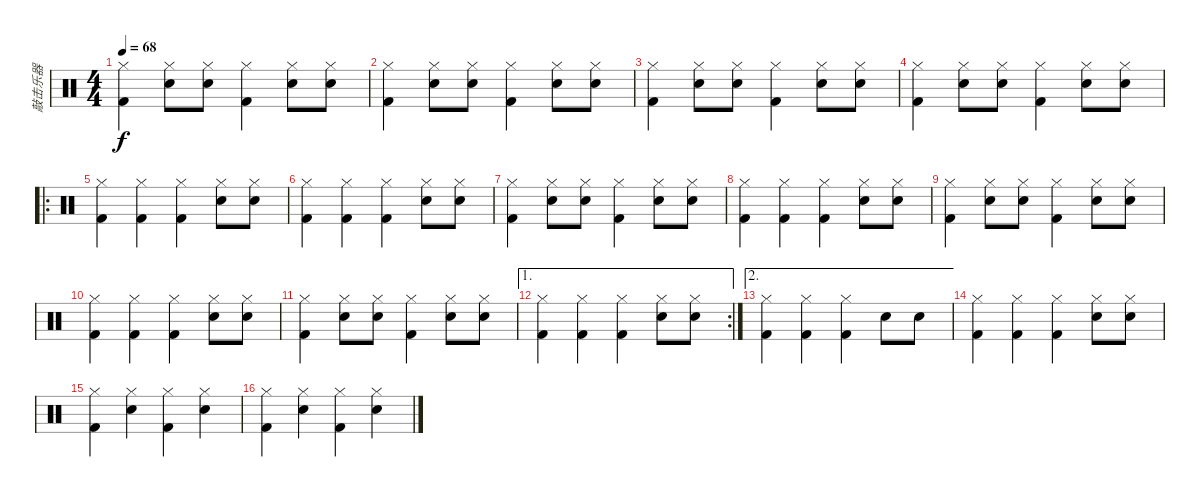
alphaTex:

\track ("敲击乐器" "敲击乐器") {instrument percussion}
\staff {score}
\articulation defaults
\ts (4 4)
\tempo 68
\clef neutral
\ks c
("Kick (hit) 2" "Hi-Hat (closed)").4{dy f} ("Snare (hit) 2" "Hi-Hat (closed)").8 ("Snare (hit) 2" "Hi-Hat (closed)").8 ("Kick (hit) 2" "Hi-Hat (closed)").4 ("Snare (hit) 2" "Hi-Hat (closed)").8 ("Snare (hit) 2" "Hi-Hat (closed)").8 |
("Kick (hit) 2" "Hi-Hat (closed)").4 ("Snare (hit) 2" "Hi-Hat (closed)").8 ("Snare (hit) 2" "Hi-Hat (closed)").8 ("Kick (hit) 2" "Hi-Hat (closed)").4 ("Snare (hit) 2" "Hi-Hat (closed)").8 ("Snare (hit) 2" "Hi-Hat (closed)").8 |
("Kick (hit) 2" "Hi-Hat (closed)").4 ("Snare (hit) 2" "Hi-Hat (closed)").8 ("Snare (hit) 2" "Hi-Hat (closed)").8 ("Kick (hit) 2" "Hi-Hat (closed)").4 ("Snare (hit) 2" "Hi-Hat (closed)").8 ("Snare (hit) 2" "Hi-Hat (closed)").8 |
("Kick (hit) 2" "Hi-Hat (closed)").4 ("Snare (hit) 2" "Hi-Hat (closed)").8 ("Snare (hit) 2" "Hi-Hat (closed)").8 ("Kick (hit) 2" "Hi-Hat (closed)").4 ("Snare (hit) 2" "Hi-Hat (closed)").8 ("Snare (hit) 2" "Hi-Hat (closed)").8 |
\ro
("Kick (hit) 2" "Hi-Hat (closed)").4 ("Kick (hit) 2" "Hi-Hat (closed)").4 ("Kick (hit) 2" "Hi-Hat (closed)").4 ("Snare (hit) 2" "Hi-Hat (closed)").8 ("Snare (hit) 2" "Hi-Hat (closed)").8 |
("Kick (hit) 2" "Hi-Hat (closed)").4 ("Kick (hit) 2" "Hi-Hat (closed)").4 ("Kick (hit) 2" "Hi-Hat (closed)").4 ("Snare (hit) 2" "Hi-Hat (closed)").8 ("Snare (hit) 2" "Hi-Hat (closed)").8 |
("Kick (hit) 2" "Hi-Hat (closed)").4 ("Snare (hit) 2" "Hi-Hat (closed)").8 ("Snare (hit) 2" "Hi-Hat (closed)").8 ("Kick (hit) 2" "Hi-Hat (closed)").4 ("Snare (hit) 2" "Hi-Hat (closed)").8 ("Snare (hit) 2" "Hi-Hat (closed)").8 |
("Kick (hit) 2" "Hi-Hat (closed)").4 ("Kick (hit) 2" "Hi-Hat (closed)").4 ("Kick (hit) 2" "Hi-Hat (closed)").4 ("Snare (hit) 2" "Hi-Hat (closed)").8 ("Snare (hit) 2" "Hi-Hat (closed)").8 |
("Kick (hit) 2" "Hi-Hat (closed)").4 ("Snare (hit) 2" "Hi-Hat (closed)").8 ("Snare (hit) 2" "Hi-Hat (closed)").8 ("Kick (hit) 2" "Hi-Hat (closed)").4 ("Snare (hit) 2" "Hi-Hat (closed)").8 ("Snare (hit) 2" "Hi-Hat (closed)").8 |
("Kick (hit) 2" "Hi-Hat (closed)").4 ("Kick (hit) 2" "Hi-Hat (closed)").4 ("Kick (hit) 2" "Hi-Hat (closed)").4 ("Snare (hit) 2" "Hi-Hat (closed)").8 ("Snare (hit) 2" "Hi-Hat (closed)").8 |
("Kick (hit) 2" "Hi-Hat (closed)").4 ("Snare (hit) 2" "Hi-Hat (closed)").8 ("Snare (hit) 2" "Hi-Hat (closed)").8 ("Kick (hit) 2" "Hi-Hat (closed)").4 ("Snare (hit) 2" "Hi-Hat (closed)").8 ("Snare (hit) 2" "Hi-Hat (closed)").8 |
\ae 1
\rc 2
("Kick (hit) 2" "Hi-Hat (closed)").4 ("Kick (hit) 2" "Hi-Hat (closed)").4 ("Kick (hit) 2" "Hi-Hat (closed)").4 ("Snare (hit) 2" "Hi-Hat (closed)").8 ("Snare (hit) 2" "Hi-Hat (closed)").8 |
\ae 2
("Kick (hit) 2" "Hi-Hat (closed)").4 ("Kick (hit) 2" "Hi-Hat (closed)").4 ("Kick (hit) 2" "Hi-Hat (closed)").4 "Snare (hit) 2".8 "Snare (hit) 2".8 |
("Kick (hit) 2" "Hi-Hat (closed)").4 ("Kick (hit) 2" "Hi-Hat (closed)").4 ("Kick (hit) 2" "Hi-Hat (closed)").4 ("Snare (hit) 2" "Hi-Hat (closed)").8 ("Snare (hit) 2" "Hi-Hat (closed)").8 |
("Kick (hit) 2" "Hi-Hat (closed)").4 ("Snare (hit) 2" "Hi-Hat (closed)").4 ("Kick (hit) 2" "Hi-Hat (closed)").4 ("Snare (hit) 2" "Hi-Hat (closed)").4 |
("Kick (hit) 2" "Hi-Hat (closed)").4 ("Snare (hit) 2" "Hi-Hat (closed)").4 ("Kick (hit) 2" "Hi-Hat (closed)").4 ("Snare (hit) 2" "Hi-Hat (closed)").4
